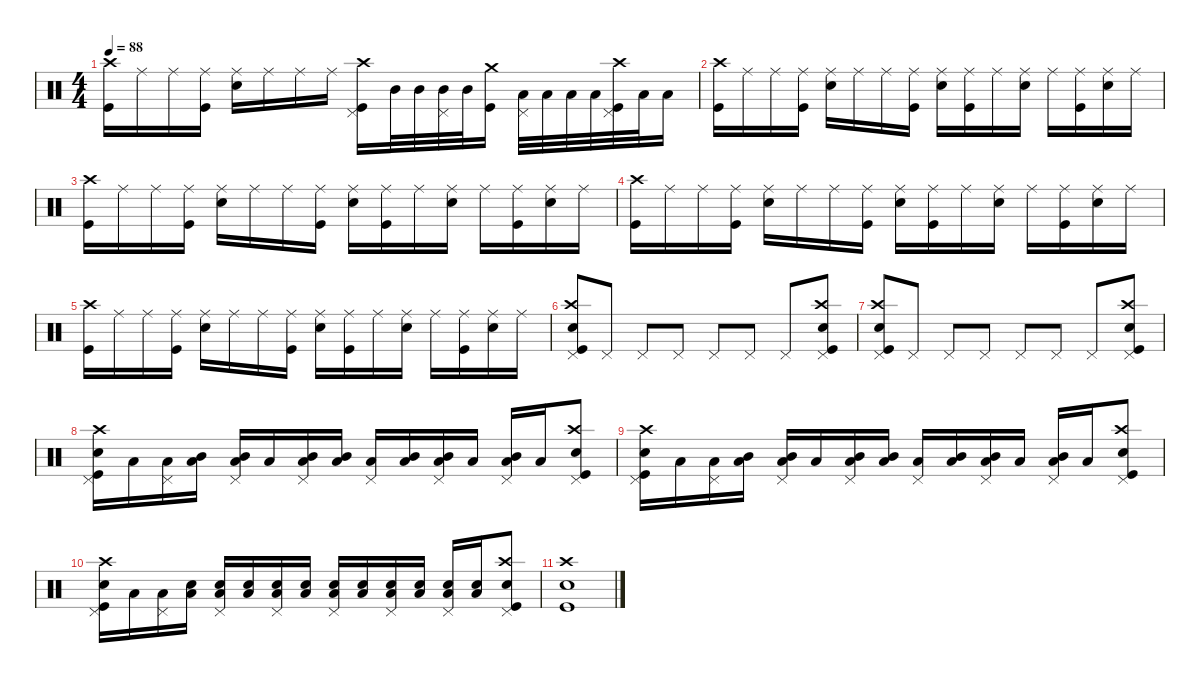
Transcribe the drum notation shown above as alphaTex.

\defaultSystemsLayout 4
\hideDynamics
\bracketExtendMode nobrackets
\singleTrackTrackNamePolicy hidden
\multiTrackTrackNamePolicy hidden
\firstSystemTrackNameMode fullname
\firstSystemTrackNameOrientation horizontal
\otherSystemsTrackNameOrientation horizontal
\track ("Drums" "drm.") {instrument percussion}
\staff {score}
\articulation defaults
\ts (4 4)
\tempo 88
\clef neutral
\ks c
("Crash high (hit)" "Kick (hit)").16{dy f beam Down} "Ride (middle)".16{dy mp beam Down} "Ride (middle)".16{dy f beam Down} ("Ride (middle)" "Kick (hit)").16{dy mp beam Down} ("Ride (middle)" "Snare (hit) 2").16{dy f beam Down} "Ride (middle)".16{dy mp beam Down} "Ride (middle)".16{dy f beam Down} "Ride (middle)".16{dy mp beam Down} ("Crash high (hit)" "Pedal Hi-Hat (hit)" "Kick (hit)").16{dy f beam Down} "Mid Tom (hit)".32{dy mf beam Down} "Mid Tom (hit)".32{dy mp beam Down} ("Pedal Hi-Hat (hit)" "Mid Tom (hit)").32{dy p beam Down} "Mid Tom (hit)".32{dy mf beam Down} ("Crash medium (hit)" "Kick (hit)").16{dy f beam Down} ("Pedal Hi-Hat (hit)" "Low Tom (hit)").32{dy p beam Down} "Low Tom (hit)".32{dy mp beam Down} "Low Tom (hit)".32{beam Down} "Low Tom (hit)".32{beam Down} ("Crash high (hit)" "Pedal Hi-Hat (hit)" "Kick (hit)").32{dy f beam Down} "Low Tom (hit)".32{dy mp beam Down} "Low Tom (hit)".16{dy p beam Down} |
("Crash high (hit)" "Kick (hit)").16{dy f beam Down} "Ride (middle)".16{dy mp beam Down} "Ride (middle)".16{dy f beam Down} ("Ride (middle)" "Kick (hit)").16{dy mp beam Down} ("Ride (middle)" "Snare (hit) 2").16{dy f beam Down} "Ride (middle)".16{dy mp beam Down} "Ride (middle)".16{dy f beam Down} ("Ride (middle)" "Kick (hit)").16{dy mp beam Down} ("Ride (middle)" "Snare (hit) 2").16{dy f beam Down} ("Ride (middle)" "Kick (hit)").16{dy mp beam Down} "Ride (middle)".16{dy f beam Down} ("Ride (middle)" "Snare (hit) 2").16{dy mp beam Down} "Ride (middle)".16{dy f beam Down} ("Ride (middle)" "Kick (hit)").16{dy mp beam Down} ("Ride (middle)" "Snare (hit) 2").16{dy f beam Down} "Ride (middle)".16{dy mp beam Down} |
("Crash high (hit)" "Kick (hit)").16{dy f beam Down} "Ride (middle)".16{dy mp beam Down} "Ride (middle)".16{dy f beam Down} ("Ride (middle)" "Kick (hit)").16{dy mp beam Down} ("Ride (middle)" "Snare (hit) 2").16{dy f beam Down} "Ride (middle)".16{dy mp beam Down} "Ride (middle)".16{dy f beam Down} ("Ride (middle)" "Kick (hit)").16{dy mp beam Down} ("Ride (middle)" "Snare (hit) 2").16{dy f beam Down} ("Ride (middle)" "Kick (hit)").16{dy mp beam Down} "Ride (middle)".16{dy f beam Down} ("Ride (middle)" "Snare (hit) 2").16{dy mp beam Down} "Ride (middle)".16{dy f beam Down} ("Ride (middle)" "Kick (hit)").16{dy mp beam Down} ("Ride (middle)" "Snare (hit) 2").16{dy f beam Down} "Ride (middle)".16{dy mp beam Down} |
("Crash high (hit)" "Kick (hit)").16{dy f beam Down} "Ride (middle)".16{dy mp beam Down} "Ride (middle)".16{dy f beam Down} ("Ride (middle)" "Kick (hit)").16{dy mp beam Down} ("Ride (middle)" "Snare (hit) 2").16{dy f beam Down} "Ride (middle)".16{dy mp beam Down} "Ride (middle)".16{dy f beam Down} ("Ride (middle)" "Kick (hit)").16{dy mp beam Down} ("Ride (middle)" "Snare (hit) 2").16{dy f beam Down} ("Ride (middle)" "Kick (hit)").16{dy mp beam Down} "Ride (middle)".16{dy f beam Down} ("Ride (middle)" "Snare (hit) 2").16{dy mp beam Down} "Ride (middle)".16{dy f beam Down} ("Ride (middle)" "Kick (hit)").16{dy mp beam Down} ("Ride (middle)" "Snare (hit) 2").16{dy f beam Down} "Ride (middle)".16{dy mp beam Down} |
("Crash high (hit)" "Kick (hit)").16{dy f beam Down} "Ride (middle)".16{dy mp beam Down} "Ride (middle)".16{dy f beam Down} ("Ride (middle)" "Kick (hit)").16{dy mp beam Down} ("Ride (middle)" "Snare (hit) 2").16{dy f beam Down} "Ride (middle)".16{dy mp beam Down} "Ride (middle)".16{dy f beam Down} ("Ride (middle)" "Kick (hit)").16{dy mp beam Down} ("Ride (middle)" "Snare (hit) 2").16{dy f beam Down} ("Ride (middle)" "Kick (hit)").16{dy mp beam Down} "Ride (middle)".16{dy f beam Down} ("Ride (middle)" "Snare (hit) 2").16{dy mp beam Down} "Ride (middle)".16{dy f beam Down} ("Ride (middle)" "Kick (hit)").16{dy mp beam Down} ("Ride (middle)" "Snare (hit) 2").16{dy f beam Down} "Ride (middle)".16{dy mp beam Down} |
("Crash high (hit)" "Pedal Hi-Hat (hit)" "Snare (hit) 2" "Kick (hit)").8{dy f beam Up} "Pedal Hi-Hat (hit)".8{dy pp beam Up} "Pedal Hi-Hat (hit)".8{beam Up} "Pedal Hi-Hat (hit)".8{beam Up} "Pedal Hi-Hat (hit)".8{beam Up} "Pedal Hi-Hat (hit)".8{beam Up} "Pedal Hi-Hat (hit)".8{beam Up} ("Crash high (hit)" "Pedal Hi-Hat (hit)" "Snare (hit) 2" "Kick (hit)").8{dy f beam Up} |
("Crash high (hit)" "Pedal Hi-Hat (hit)" "Snare (hit) 2" "Kick (hit)").8{beam Up} "Pedal Hi-Hat (hit)".8{dy pp beam Up} "Pedal Hi-Hat (hit)".8{beam Up} "Pedal Hi-Hat (hit)".8{beam Up} "Pedal Hi-Hat (hit)".8{beam Up} "Pedal Hi-Hat (hit)".8{beam Up} "Pedal Hi-Hat (hit)".8{beam Up} ("Crash high (hit)" "Pedal Hi-Hat (hit)" "Snare (hit) 2" "Kick (hit)").8{dy f beam Up} |
("Crash high (hit)" "Pedal Hi-Hat (hit)" "Snare (hit) 2" "Kick (hit)").16{beam Down} "Low Tom (hit)".16{dy mp beam Down} ("Pedal Hi-Hat (hit)" "Low Tom (hit)").16{dy pp beam Down} ("Low Tom (hit)" "Mid Tom (hit)").16{dy p beam Down} ("Pedal Hi-Hat (hit)" "Low Tom (hit)" "Mid Tom (hit)").16{dy pp beam Up} "Low Tom (hit)".16{beam Up} ("Pedal Hi-Hat (hit)" "Low Tom (hit)" "Mid Tom (hit)").16{beam Up} ("Low Tom (hit)" "Mid Tom (hit)").16{dy mp beam Up} ("Pedal Hi-Hat (hit)" "Low Tom (hit)").16{dy pp beam Up} ("Low Tom (hit)" "Mid Tom (hit)").16{dy p beam Up} ("Pedal Hi-Hat (hit)" "Low Tom (hit)" "Mid Tom (hit)").16{dy pp beam Up} "Low Tom (hit)".16{beam Up} ("Pedal Hi-Hat (hit)" "Low Tom (hit)" "Mid Tom (hit)").16{beam Up} "Low Tom (hit)".16{beam Up} ("Crash high (hit)" "Pedal Hi-Hat (hit)" "Snare (hit) 2" "Kick (hit)").8{dy f beam Up} |
("Crash high (hit)" "Pedal Hi-Hat (hit)" "Snare (hit) 2" "Kick (hit)").16{beam Down} "Low Tom (hit)".16{dy mp beam Down} ("Pedal Hi-Hat (hit)" "Low Tom (hit)").16{dy pp beam Down} ("Low Tom (hit)" "Mid Tom (hit)").16{dy p beam Down} ("Pedal Hi-Hat (hit)" "Low Tom (hit)" "Mid Tom (hit)").16{dy pp beam Up} "Low Tom (hit)".16{beam Up} ("Pedal Hi-Hat (hit)" "Low Tom (hit)" "Mid Tom (hit)").16{beam Up} ("Low Tom (hit)" "Mid Tom (hit)").16{dy mp beam Up} ("Pedal Hi-Hat (hit)" "Low Tom (hit)").16{dy pp beam Up} ("Low Tom (hit)" "Mid Tom (hit)").16{dy p beam Up} ("Pedal Hi-Hat (hit)" "Low Tom (hit)" "Mid Tom (hit)").16{dy pp beam Up} "Low Tom (hit)".16{beam Up} ("Pedal Hi-Hat (hit)" "Low Tom (hit)" "Mid Tom (hit)").16{beam Up} "Low Tom (hit)".16{beam Up} ("Crash high (hit)" "Pedal Hi-Hat (hit)" "Snare (hit) 2" "Kick (hit)").8{dy f beam Up} |
("Crash high (hit)" "Pedal Hi-Hat (hit)" "Snare (hit) 2" "Kick (hit)").16{beam Down} "Low Tom (hit)".16{dy mp beam Down} ("Pedal Hi-Hat (hit)" "Low Tom (hit)").16{dy pp beam Down} ("Low Tom (hit)" "Snare (hit) 2").16{dy p beam Down} ("Pedal Hi-Hat (hit)" "Low Tom (hit)" "Snare (hit) 2").16{dy pp beam Up} ("Low Tom (hit)" "Snare (hit) 2").16{dy p beam Up} ("Pedal Hi-Hat (hit)" "Low Tom (hit)" "Snare (hit) 2").16{dy pp beam Up} ("Low Tom (hit)" "Snare (hit) 2").16{dy mp beam Up} ("Pedal Hi-Hat (hit)" "Low Tom (hit)" "Snare (hit) 2").16{dy pp beam Up} ("Low Tom (hit)" "Snare (hit) 2").16{dy mp beam Up} ("Pedal Hi-Hat (hit)" "Low Tom (hit)" "Snare (hit) 2").16{dy pp beam Up} ("Low Tom (hit)" "Snare (hit) 2").16{dy mf beam Up} ("Pedal Hi-Hat (hit)" "Low Tom (hit)" "Snare (hit) 2").16{dy pp beam Up} ("Low Tom (hit)" "Snare (hit) 2").16{dy mf beam Up} ("Crash high (hit)" "Pedal Hi-Hat (hit)" "Snare (hit) 2" "Kick (hit)").8{dy f beam Up} |
("Crash high (hit)" "Snare (hit) 2" "Kick (hit)").1{beam Down}
